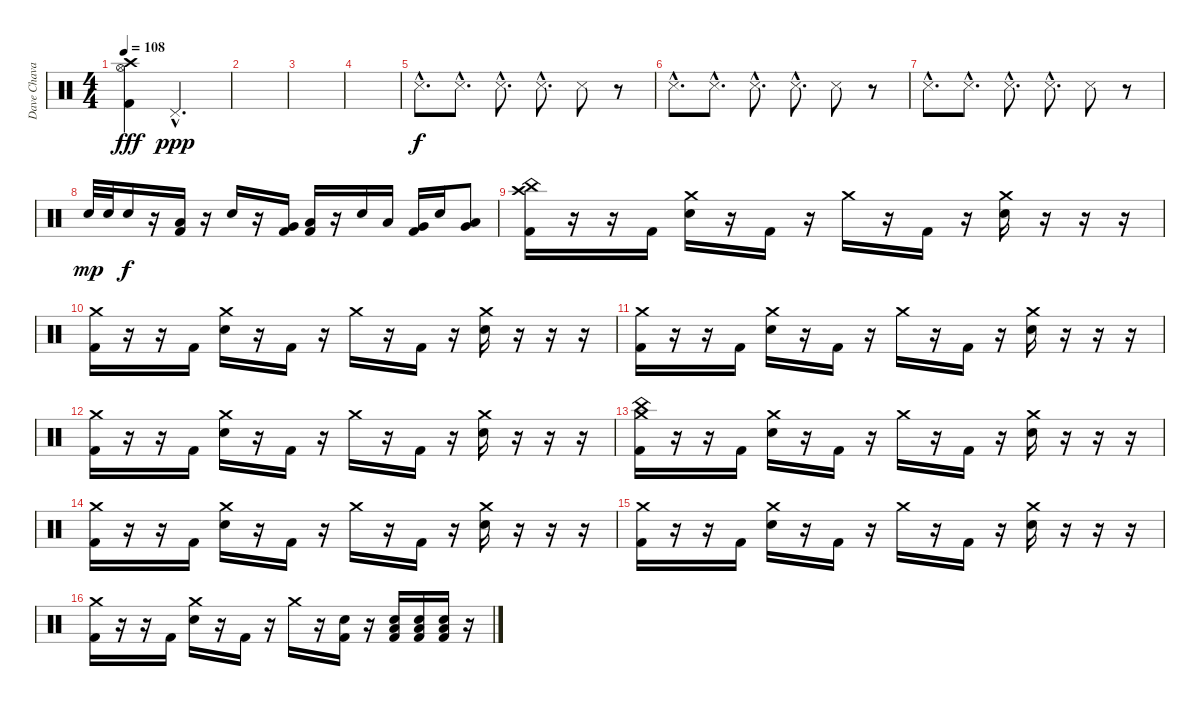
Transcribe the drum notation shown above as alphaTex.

\track ("Dave Chavarri [Drums]" "Dave Chava") {instrument percussion}
\staff {score}
\articulation defaults
\ts (4 4)
\tempo 108
\clef neutral
\ks c
("Hi-Hat (open)" "Crash high (hit)" "Kick (hit) 2").4{dy fff} "Pedal Hi-Hat (hit)"{hac}.2{d dy ppp} |
|
|
|
"Snare (side stick) 3"{hac}.8{d dy f} "Snare (side stick) 3"{hac}.8{d} "Snare (side stick) 3"{hac}.8{d} "Snare (side stick) 3"{hac}.8{d} "Snare (side stick) 3".8 r.8 |
"Snare (side stick) 3"{hac}.8{d} "Snare (side stick) 3"{hac}.8{d} "Snare (side stick) 3"{hac}.8{d} "Snare (side stick) 3"{hac}.8{d} "Snare (side stick) 3".8 r.8 |
"Snare (side stick) 3"{hac}.8{d} "Snare (side stick) 3"{hac}.8{d} "Snare (side stick) 3"{hac}.8{d} "Snare (side stick) 3"{hac}.8{d} "Snare (side stick) 3".8 r.8 |
"Electric Snare (hit)".32{dy mp} "Electric Snare (hit)".32 "Electric Snare (hit)".16{dy f} r.16 ("Low Floor Tom (hit)" "Kick (hit) 2").16 r.16 "Electric Snare (hit)".16 r.16 ("Very Low Tom (hit)" "Kick (hit) 2").16 ("Low Floor Tom (hit)" "Kick (hit) 2").16 r.16 "Electric Snare (hit)".16 "Low Tom (hit)".16 ("Very Low Tom (hit)" "Kick (hit) 2").16 "Electric Snare (hit)".16 ("Low Tom (hit)" "Very Low Tom (hit)").8 |
("Crash high (hit)" "China (hit)" "Kick (hit) 2").16 r.16 r.16 "Kick (hit) 2".16 ("Crash medium (hit)" "Electric Snare (hit)").16 r.16 "Kick (hit) 2".16 r.16 "Crash medium (hit)".16 r.16 "Kick (hit) 2".16 r.16 ("Crash medium (hit)" "Electric Snare (hit)").16 r.16 r.16 r.16 |
("Crash medium (hit)" "Kick (hit) 2").16 r.16 r.16 "Kick (hit) 2".16 ("Crash medium (hit)" "Electric Snare (hit)").16 r.16 "Kick (hit) 2".16 r.16 "Crash medium (hit)".16 r.16 "Kick (hit) 2".16 r.16 ("Crash medium (hit)" "Electric Snare (hit)").16 r.16 r.16 r.16 |
("Crash medium (hit)" "Kick (hit) 2").16 r.16 r.16 "Kick (hit) 2".16 ("Crash medium (hit)" "Electric Snare (hit)").16 r.16 "Kick (hit) 2".16 r.16 "Crash medium (hit)".16 r.16 "Kick (hit) 2".16 r.16 ("Crash medium (hit)" "Electric Snare (hit)").16 r.16 r.16 r.16 |
("Crash medium (hit)" "Kick (hit) 2").16 r.16 r.16 "Kick (hit) 2".16 ("Crash medium (hit)" "Electric Snare (hit)").16 r.16 "Kick (hit) 2".16 r.16 "Crash medium (hit)".16 r.16 "Kick (hit) 2".16 r.16 ("Crash medium (hit)" "Electric Snare (hit)").16 r.16 r.16 r.16 |
("Crash medium (hit)" "China (hit)" "Kick (hit) 2").16 r.16 r.16 "Kick (hit) 2".16 ("Crash medium (hit)" "Electric Snare (hit)").16 r.16 "Kick (hit) 2".16 r.16 "Crash medium (hit)".16 r.16 "Kick (hit) 2".16 r.16 ("Crash medium (hit)" "Electric Snare (hit)").16 r.16 r.16 r.16 |
("Crash medium (hit)" "Kick (hit) 2").16 r.16 r.16 "Kick (hit) 2".16 ("Crash medium (hit)" "Electric Snare (hit)").16 r.16 "Kick (hit) 2".16 r.16 "Crash medium (hit)".16 r.16 "Kick (hit) 2".16 r.16 ("Crash medium (hit)" "Electric Snare (hit)").16 r.16 r.16 r.16 |
("Crash medium (hit)" "Kick (hit) 2").16 r.16 r.16 "Kick (hit) 2".16 ("Crash medium (hit)" "Electric Snare (hit)").16 r.16 "Kick (hit) 2".16 r.16 "Crash medium (hit)".16 r.16 "Kick (hit) 2".16 r.16 ("Crash medium (hit)" "Electric Snare (hit)").16 r.16 r.16 r.16 |
("Crash medium (hit)" "Kick (hit) 2").16 r.16 r.16 "Kick (hit) 2".16 ("Crash medium (hit)" "Electric Snare (hit)").16 r.16 "Kick (hit) 2".16 r.16 "Crash medium (hit)".16 r.16 ("Electric Snare (hit)" "Kick (hit) 2").16 r.16 ("Low Floor Tom (hit)" "Electric Snare (hit)" "Kick (hit) 2").16 ("Low Floor Tom (hit)" "Electric Snare (hit)" "Kick (hit) 2").16 ("Low Floor Tom (hit)" "Electric Snare (hit)" "Kick (hit) 2").16 r.16
